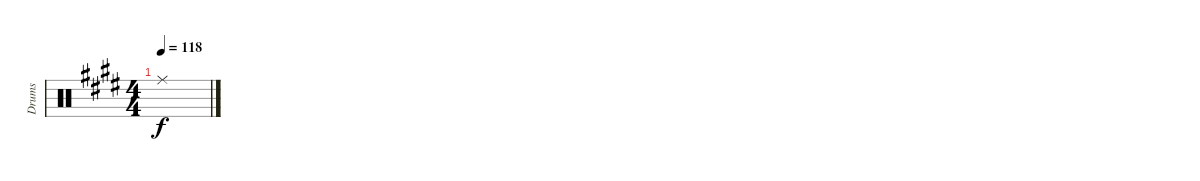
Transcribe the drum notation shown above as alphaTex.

\track ("Drums" "Drums") {instrument percussion}
\staff {score}
\articulation defaults
\ts (4 4)
\tempo 118
\clef neutral
\ks e "Ride (middle)".1{dy f}
